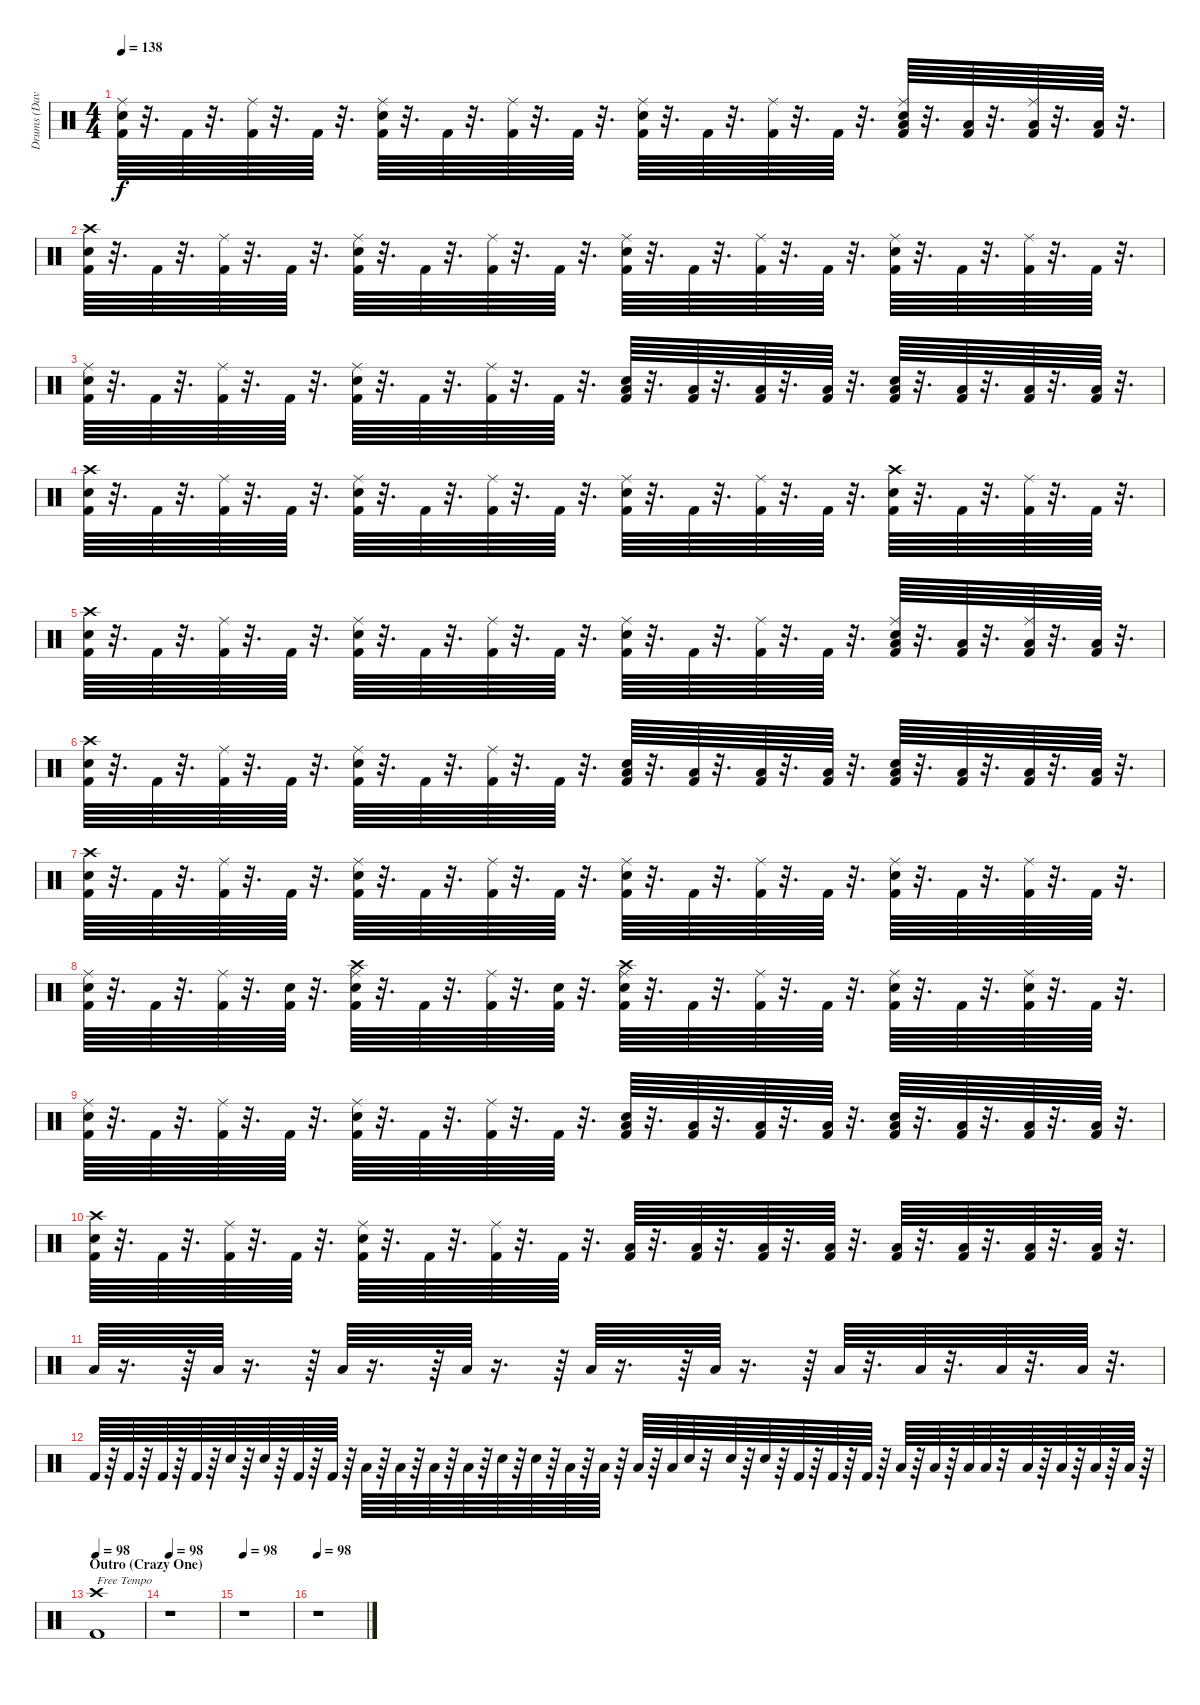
\track ("Drums (Dave)" "Drums (Dav") {instrument percussion}
\staff {score}
\articulation defaults
\ts (4 4)
\tempo 138
\clef neutral
\ks c
("Kick (hit) 2" "Snare (hit) 2" "Ride (middle)").64{dy f} r.32{d} "Kick (hit) 2".64 r.32{d} ("Kick (hit) 2" "Ride (middle)").64 r.32{d} "Kick (hit) 2".64 r.32{d} ("Kick (hit) 2" "Snare (hit) 2" "Ride (middle)").64 r.32{d} "Kick (hit) 2".64 r.32{d} ("Kick (hit) 2" "Ride (middle)").64 r.32{d} "Kick (hit) 2".64 r.32{d} ("Kick (hit) 2" "Snare (hit) 2" "Ride (middle)").64 r.32{d} "Kick (hit) 2".64 r.32{d} ("Kick (hit) 2" "Ride (middle)").64 r.32{d} "Kick (hit) 2".64 r.32{d} ("Kick (hit) 2" "Snare (hit) 2" "Ride (middle)" "Low Tom (hit)").64 r.32{d} ("Kick (hit) 2" "Low Tom (hit)").64 r.32{d} ("Kick (hit) 2" "Ride (middle)" "Low Tom (hit)").64 r.32{d} ("Kick (hit) 2" "Low Tom (hit)").64 r.32{d} |
("Kick (hit) 2" "Snare (hit) 2" "Crash high (hit)").64 r.32{d} "Kick (hit) 2".64 r.32{d} ("Kick (hit) 2" "Ride (middle)").64 r.32{d} "Kick (hit) 2".64 r.32{d} ("Kick (hit) 2" "Snare (hit) 2" "Ride (middle)").64 r.32{d} "Kick (hit) 2".64 r.32{d} ("Kick (hit) 2" "Ride (middle)").64 r.32{d} "Kick (hit) 2".64 r.32{d} ("Kick (hit) 2" "Snare (hit) 2" "Ride (middle)").64 r.32{d} "Kick (hit) 2".64 r.32{d} ("Kick (hit) 2" "Ride (middle)").64 r.32{d} "Kick (hit) 2".64 r.32{d} ("Kick (hit) 2" "Snare (hit) 2" "Ride (middle)").64 r.32{d} "Kick (hit) 2".64 r.32{d} ("Kick (hit) 2" "Ride (middle)").64 r.32{d} "Kick (hit) 2".64 r.32{d} |
("Kick (hit) 2" "Snare (hit) 2" "Ride (middle)").64 r.32{d} "Kick (hit) 2".64 r.32{d} ("Kick (hit) 2" "Ride (middle)").64 r.32{d} "Kick (hit) 2".64 r.32{d} ("Kick (hit) 2" "Snare (hit) 2" "Ride (middle)").64 r.32{d} "Kick (hit) 2".64 r.32{d} ("Kick (hit) 2" "Ride (middle)").64 r.32{d} "Kick (hit) 2".64 r.32{d} ("Kick (hit) 2" "Snare (hit) 2" "Low Tom (hit)").64 r.32{d} ("Kick (hit) 2" "Low Tom (hit)").64 r.32{d} ("Kick (hit) 2" "Low Tom (hit)").64 r.32{d} ("Kick (hit) 2" "Low Tom (hit)").64 r.32{d} ("Kick (hit) 2" "Low Tom (hit)" "Snare (hit) 2").64 r.32{d} ("Kick (hit) 2" "Low Tom (hit)").64 r.32{d} ("Kick (hit) 2" "Low Tom (hit)").64 r.32{d} ("Kick (hit) 2" "Low Tom (hit)").64 r.32{d} |
("Kick (hit) 2" "Snare (hit) 2" "Crash high (hit)").64 r.32{d} "Kick (hit) 2".64 r.32{d} ("Kick (hit) 2" "Ride (middle)").64 r.32{d} "Kick (hit) 2".64 r.32{d} ("Kick (hit) 2" "Snare (hit) 2" "Ride (middle)").64 r.32{d} "Kick (hit) 2".64 r.32{d} ("Kick (hit) 2" "Ride (middle)").64 r.32{d} "Kick (hit) 2".64 r.32{d} ("Kick (hit) 2" "Snare (hit) 2" "Ride (middle)").64 r.32{d} "Kick (hit) 2".64 r.32{d} ("Kick (hit) 2" "Ride (middle)").64 r.32{d} "Kick (hit) 2".64 r.32{d} ("Kick (hit) 2" "Snare (hit) 2" "Crash high (hit)").64 r.32{d} "Kick (hit) 2".64 r.32{d} ("Kick (hit) 2" "Ride (middle)").64 r.32{d} "Kick (hit) 2".64 r.32{d} |
("Kick (hit) 2" "Snare (hit) 2" "Crash high (hit)").64 r.32{d} "Kick (hit) 2".64 r.32{d} ("Kick (hit) 2" "Ride (middle)").64 r.32{d} "Kick (hit) 2".64 r.32{d} ("Kick (hit) 2" "Snare (hit) 2" "Ride (middle)").64 r.32{d} "Kick (hit) 2".64 r.32{d} ("Kick (hit) 2" "Ride (middle)").64 r.32{d} "Kick (hit) 2".64 r.32{d} ("Kick (hit) 2" "Snare (hit) 2" "Ride (middle)").64 r.32{d} "Kick (hit) 2".64 r.32{d} ("Kick (hit) 2" "Ride (middle)").64 r.32{d} "Kick (hit) 2".64 r.32{d} ("Kick (hit) 2" "Snare (hit) 2" "Ride (middle)" "Low Tom (hit)").64 r.32{d} ("Kick (hit) 2" "Low Tom (hit)").64 r.32{d} ("Kick (hit) 2" "Ride (middle)" "Low Tom (hit)").64 r.32{d} ("Kick (hit) 2" "Low Tom (hit)").64 r.32{d} |
("Kick (hit) 2" "Snare (hit) 2" "Crash high (hit)").64 r.32{d} "Kick (hit) 2".64 r.32{d} ("Kick (hit) 2" "Ride (middle)").64 r.32{d} "Kick (hit) 2".64 r.32{d} ("Kick (hit) 2" "Snare (hit) 2" "Ride (middle)").64 r.32{d} "Kick (hit) 2".64 r.32{d} ("Kick (hit) 2" "Ride (middle)").64 r.32{d} "Kick (hit) 2".64 r.32{d} ("Kick (hit) 2" "Snare (hit) 2" "Low Tom (hit)").64 r.32{d} ("Kick (hit) 2" "Low Tom (hit)").64 r.32{d} ("Kick (hit) 2" "Low Tom (hit)").64 r.32{d} ("Kick (hit) 2" "Low Tom (hit)").64 r.32{d} ("Kick (hit) 2" "Snare (hit) 2" "Low Tom (hit)").64 r.32{d} ("Kick (hit) 2" "Low Tom (hit)").64 r.32{d} ("Kick (hit) 2" "Low Tom (hit)").64 r.32{d} ("Kick (hit) 2" "Low Tom (hit)").64 r.32{d} |
("Kick (hit) 2" "Snare (hit) 2" "Crash high (hit)").64 r.32{d} "Kick (hit) 2".64 r.32{d} ("Kick (hit) 2" "Ride (middle)").64 r.32{d} "Kick (hit) 2".64 r.32{d} ("Kick (hit) 2" "Snare (hit) 2" "Ride (middle)").64 r.32{d} "Kick (hit) 2".64 r.32{d} ("Kick (hit) 2" "Ride (middle)").64 r.32{d} "Kick (hit) 2".64 r.32{d} ("Kick (hit) 2" "Snare (hit) 2" "Ride (middle)").64 r.32{d} "Kick (hit) 2".64 r.32{d} ("Kick (hit) 2" "Ride (middle)").64 r.32{d} "Kick (hit) 2".64 r.32{d} ("Kick (hit) 2" "Snare (hit) 2" "Ride (middle)").64 r.32{d} "Kick (hit) 2".64 r.32{d} ("Kick (hit) 2" "Ride (middle)").64 r.32{d} "Kick (hit) 2".64 r.32{d} |
("Kick (hit) 2" "Snare (hit) 2" "Ride (middle)").64 r.32{d} "Kick (hit) 2".64 r.32{d} ("Kick (hit) 2" "Ride (middle)").64 r.32{d} ("Kick (hit) 2" "Snare (hit) 2").64 r.32{d} ("Kick (hit) 2" "Ride (middle)" "Crash high (hit)" "Snare (hit) 2").64 r.32{d} "Kick (hit) 2".64 r.32{d} ("Kick (hit) 2" "Ride (middle)").64 r.32{d} ("Kick (hit) 2" "Snare (hit) 2").64 r.32{d} ("Kick (hit) 2" "Ride (middle)" "Crash high (hit)" "Snare (hit) 2").64 r.32{d} "Kick (hit) 2".64 r.32{d} ("Kick (hit) 2" "Ride (middle)").64 r.32{d} "Kick (hit) 2".64 r.32{d} ("Kick (hit) 2" "Snare (hit) 2" "Ride (middle)").64 r.32{d} "Kick (hit) 2".64 r.32{d} ("Kick (hit) 2" "Ride (middle)" "Snare (hit) 2").64 r.32{d} "Kick (hit) 2".64 r.32{d} |
("Kick (hit) 2" "Snare (hit) 2" "Ride (middle)").64 r.32{d} "Kick (hit) 2".64 r.32{d} ("Kick (hit) 2" "Ride (middle)").64 r.32{d} "Kick (hit) 2".64 r.32{d} ("Kick (hit) 2" "Snare (hit) 2" "Ride (middle)").64 r.32{d} "Kick (hit) 2".64 r.32{d} ("Kick (hit) 2" "Ride (middle)").64 r.32{d} "Kick (hit) 2".64 r.32{d} ("Kick (hit) 2" "Snare (hit) 2" "Low Tom (hit)").64 r.32{d} ("Kick (hit) 2" "Low Tom (hit)").64 r.32{d} ("Kick (hit) 2" "Low Tom (hit)").64 r.32{d} ("Kick (hit) 2" "Low Tom (hit)").64 r.32{d} ("Kick (hit) 2" "Snare (hit) 2" "Low Tom (hit)").64 r.32{d} ("Kick (hit) 2" "Low Tom (hit)").64 r.32{d} ("Kick (hit) 2" "Low Tom (hit)").64 r.32{d} ("Kick (hit) 2" "Low Tom (hit)").64 r.32{d} |
("Kick (hit) 2" "Snare (hit) 2" "Crash high (hit)").64 r.32{d} "Kick (hit) 2".64 r.32{d} ("Kick (hit) 2" "Ride (middle)").64 r.32{d} "Kick (hit) 2".64 r.32{d} ("Kick (hit) 2" "Snare (hit) 2" "Ride (middle)").64 r.32{d} "Kick (hit) 2".64 r.32{d} ("Kick (hit) 2" "Ride (middle)").64 r.32{d} "Kick (hit) 2".64 r.32{d} ("Kick (hit) 2" "Low Tom (hit)").64 r.32{d} ("Kick (hit) 2" "Low Tom (hit)").64 r.32{d} ("Kick (hit) 2" "Low Tom (hit)").64 r.32{d} ("Kick (hit) 2" "Low Tom (hit)").64 r.32{d} ("Kick (hit) 2" "Low Tom (hit)").64 r.32{d} ("Kick (hit) 2" "Low Tom (hit)").64 r.32{d} ("Kick (hit) 2" "Low Tom (hit)").64 r.32{d} ("Kick (hit) 2" "Low Tom (hit)").64 r.32{d} |
"Low Tom (hit)".64 r.16{d} r.64 "Low Tom (hit)".64 r.16{d} r.64 "Low Tom (hit)".64 r.16{d} r.64 "Low Tom (hit)".64 r.16{d} r.64 "Low Tom (hit)".64 r.16{d} r.64 "Low Tom (hit)".64 r.16{d} r.64 "Low Tom (hit)".64 r.32{d} "Low Tom (hit)".64 r.32{d} "Low Tom (hit)".64 r.32{d} "Low Tom (hit)".64 r.32{d} |
"Kick (hit) 2".64 r.64 "Kick (hit) 2".64 r.64 "Kick (hit) 2".64 r.64 "Kick (hit) 2".64 r.64 "Snare (hit) 2".64 r.64 "Snare (hit) 2".64 r.64 "Kick (hit) 2".64 r.64 "Kick (hit) 2".64 r.64 "Low Floor Tom (hit)".64 r.64 "Low Floor Tom (hit)".64 r.64 "Low Floor Tom (hit)".64 r.64 "Low Floor Tom (hit)".64 r.64 "Snare (hit) 2".64 r.64 "Snare (hit) 2".64 r.64 "Low Tom (hit)".64 r.64 "Low Tom (hit)".64 r.64 "Low Tom (hit)".64 r.64 "Low Tom (hit)".64 "Snare (hit) 2".64 r.32 "Snare (hit) 2".64 r.64 "Snare (hit) 2".64 r.64 "Kick (hit) 2".64 r.64 "Kick (hit) 2".64 r.64 "Kick (hit) 2".64 r.64 "Low Tom (hit)".64 r.64 "Low Tom (hit)".64 r.64 "Low Tom (hit)".64 "Low Floor Tom (hit)".64 r.32 "Low Floor Tom (hit)".64 r.64 "Low Floor Tom (hit)".64 r.64 "Low Floor Tom (hit)".64 r.64 "Low Floor Tom (hit)".64 r.64 |
\section ("" "Outro (Crazy One)")
\tempo 98
("Kick (hit) 2" "Crash high (hit)").1{txt "Free Tempo"} |
\tempo 98
r.1 |
\tempo 98
r.1 |
\tempo 98
r.1
